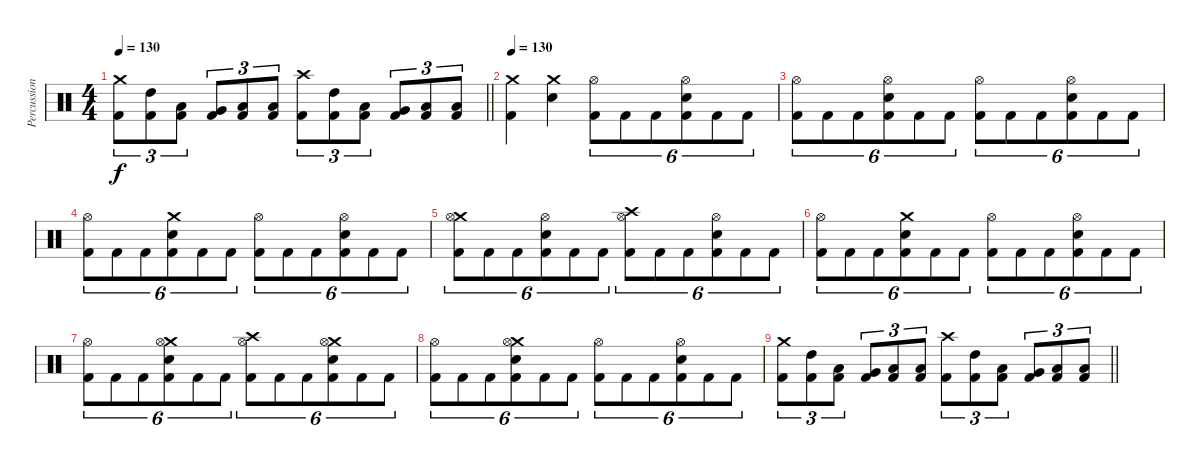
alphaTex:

\track ("Percussion" "Percussion") {instrument percussion}
\staff {score}
\articulation defaults
\ts (4 4)
\tempo 130
\clef neutral
\barLineRight lightlight
\ks c
("Crash medium (hit)" "Kick (hit) 2").8{tu (3 2) dy f} ("High Tom (hit)" "Kick (hit) 2").8{tu (3 2)} ("Low Tom (hit)" "Kick (hit) 2").8{tu (3 2)} ("Very Low Tom (hit)" "Kick (hit) 2").8{tu (3 2)} ("Low Floor Tom (hit)" "Kick (hit) 2").8{tu (3 2)} ("Low Floor Tom (hit)" "Kick (hit) 2").8{tu (3 2)} ("Crash high (hit)" "Kick (hit) 2").8{tu (3 2)} ("High Tom (hit)" "Kick (hit) 2").8{tu (3 2)} ("Low Tom (hit)" "Kick (hit) 2").8{tu (3 2)} ("Very Low Tom (hit)" "Kick (hit) 2").8{tu (3 2)} ("Low Floor Tom (hit)" "Kick (hit) 2").8{tu (3 2)} ("Low Floor Tom (hit)" "Kick (hit) 2").8{tu (3 2)} |
\tempo 130
("Crash medium (hit)" "Kick (hit) 2").4 ("Crash medium (hit)" "Snare (hit) 2").4 ("Hi-Hat (open)" "Kick (hit) 2").8{tu (6 4)} "Kick (hit) 2".8{tu (6 4)} "Kick (hit) 2".8{tu (6 4)} ("Hi-Hat (open)" "Snare (hit) 2" "Kick (hit) 2").8{tu (6 4)} "Kick (hit) 2".8{tu (6 4)} "Kick (hit) 2".8{tu (6 4)} |
("Hi-Hat (open)" "Kick (hit) 2").8{tu (6 4)} "Kick (hit) 2".8{tu (6 4)} "Kick (hit) 2".8{tu (6 4)} ("Hi-Hat (open)" "Snare (hit) 2" "Kick (hit) 2").8{tu (6 4)} "Kick (hit) 2".8{tu (6 4)} "Kick (hit) 2".8{tu (6 4)} ("Hi-Hat (open)" "Kick (hit) 2").8{tu (6 4)} "Kick (hit) 2".8{tu (6 4)} "Kick (hit) 2".8{tu (6 4)} ("Hi-Hat (open)" "Snare (hit) 2" "Kick (hit) 2").8{tu (6 4)} "Kick (hit) 2".8{tu (6 4)} "Kick (hit) 2".8{tu (6 4)} |
("Hi-Hat (open)" "Kick (hit) 2").8{tu (6 4)} "Kick (hit) 2".8{tu (6 4)} "Kick (hit) 2".8{tu (6 4)} ("Crash medium (hit)" "Snare (hit) 2" "Kick (hit) 2").8{tu (6 4)} "Kick (hit) 2".8{tu (6 4)} "Kick (hit) 2".8{tu (6 4)} ("Hi-Hat (open)" "Kick (hit) 2").8{tu (6 4)} "Kick (hit) 2".8{tu (6 4)} "Kick (hit) 2".8{tu (6 4)} ("Hi-Hat (open)" "Snare (hit) 2" "Kick (hit) 2").8{tu (6 4)} "Kick (hit) 2".8{tu (6 4)} "Kick (hit) 2".8{tu (6 4)} |
("Crash medium (hit)" "Hi-Hat (open)" "Kick (hit) 2").8{tu (6 4)} "Kick (hit) 2".8{tu (6 4)} "Kick (hit) 2".8{tu (6 4)} ("Hi-Hat (open)" "Snare (hit) 2" "Kick (hit) 2").8{tu (6 4)} "Kick (hit) 2".8{tu (6 4)} "Kick (hit) 2".8{tu (6 4)} ("Crash high (hit)" "Hi-Hat (open)" "Kick (hit) 2").8{tu (6 4)} "Kick (hit) 2".8{tu (6 4)} "Kick (hit) 2".8{tu (6 4)} ("Hi-Hat (open)" "Snare (hit) 2" "Kick (hit) 2").8{tu (6 4)} "Kick (hit) 2".8{tu (6 4)} "Kick (hit) 2".8{tu (6 4)} |
("Hi-Hat (open)" "Kick (hit) 2").8{tu (6 4)} "Kick (hit) 2".8{tu (6 4)} "Kick (hit) 2".8{tu (6 4)} ("Crash medium (hit)" "Snare (hit) 2" "Kick (hit) 2").8{tu (6 4)} "Kick (hit) 2".8{tu (6 4)} "Kick (hit) 2".8{tu (6 4)} ("Hi-Hat (open)" "Kick (hit) 2").8{tu (6 4)} "Kick (hit) 2".8{tu (6 4)} "Kick (hit) 2".8{tu (6 4)} ("Hi-Hat (open)" "Snare (hit) 2" "Kick (hit) 2").8{tu (6 4)} "Kick (hit) 2".8{tu (6 4)} "Kick (hit) 2".8{tu (6 4)} |
("Hi-Hat (open)" "Kick (hit) 2").8{tu (6 4)} "Kick (hit) 2".8{tu (6 4)} "Kick (hit) 2".8{tu (6 4)} ("Crash medium (hit)" "Hi-Hat (open)" "Snare (hit) 2" "Kick (hit) 2").8{tu (6 4)} "Kick (hit) 2".8{tu (6 4)} "Kick (hit) 2".8{tu (6 4)} ("Crash high (hit)" "Hi-Hat (open)" "Kick (hit) 2").8{tu (6 4)} "Kick (hit) 2".8{tu (6 4)} "Kick (hit) 2".8{tu (6 4)} ("Crash medium (hit)" "Hi-Hat (open)" "Snare (hit) 2" "Kick (hit) 2").8{tu (6 4)} "Kick (hit) 2".8{tu (6 4)} "Kick (hit) 2".8{tu (6 4)} |
("Hi-Hat (open)" "Kick (hit) 2").8{tu (6 4)} "Kick (hit) 2".8{tu (6 4)} "Kick (hit) 2".8{tu (6 4)} ("Crash medium (hit)" "Hi-Hat (open)" "Snare (hit) 2" "Kick (hit) 2").8{tu (6 4)} "Kick (hit) 2".8{tu (6 4)} "Kick (hit) 2".8{tu (6 4)} ("Hi-Hat (open)" "Kick (hit) 2").8{tu (6 4)} "Kick (hit) 2".8{tu (6 4)} "Kick (hit) 2".8{tu (6 4)} ("Hi-Hat (open)" "Snare (hit) 2" "Kick (hit) 2").8{tu (6 4)} "Kick (hit) 2".8{tu (6 4)} "Kick (hit) 2".8{tu (6 4)} |
\barLineRight lightlight
("Crash medium (hit)" "Kick (hit) 2").8{tu (3 2)} ("High Tom (hit)" "Kick (hit) 2").8{tu (3 2)} ("Low Tom (hit)" "Kick (hit) 2").8{tu (3 2)} ("Very Low Tom (hit)" "Kick (hit) 2").8{tu (3 2)} ("Low Floor Tom (hit)" "Kick (hit) 2").8{tu (3 2)} ("Low Floor Tom (hit)" "Kick (hit) 2").8{tu (3 2)} ("Crash high (hit)" "Kick (hit) 2").8{tu (3 2)} ("High Tom (hit)" "Kick (hit) 2").8{tu (3 2)} ("Low Tom (hit)" "Kick (hit) 2").8{tu (3 2)} ("Very Low Tom (hit)" "Kick (hit) 2").8{tu (3 2)} ("Low Floor Tom (hit)" "Kick (hit) 2").8{tu (3 2)} ("Low Floor Tom (hit)" "Kick (hit) 2").8{tu (3 2)}
